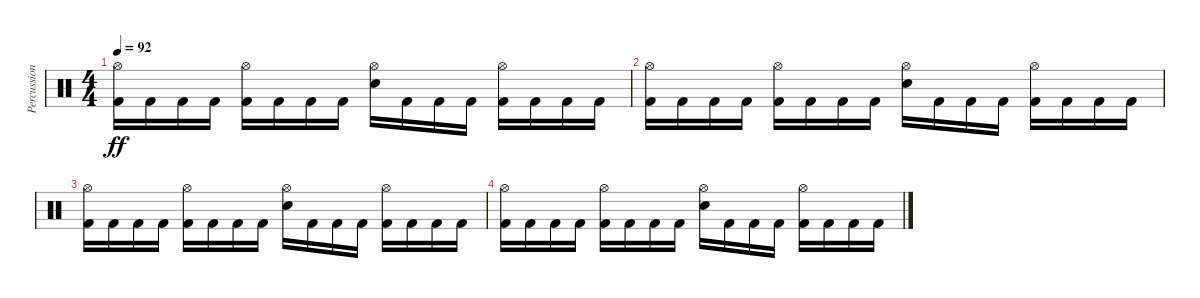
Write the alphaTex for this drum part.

\track ("Percussions" "Percussion") {instrument percussion}
\staff {score}
\articulation defaults
\ts (4 4)
\tempo 92
\clef neutral
\ks c
("Kick (hit) 2" "Hi-Hat (open)").16{dy ff} "Kick (hit) 2".16 "Kick (hit) 2".16 "Kick (hit) 2".16 ("Kick (hit) 2" "Hi-Hat (open)").16 "Kick (hit) 2".16 "Kick (hit) 2".16 "Kick (hit) 2".16 ("Electric Snare (hit)" "Hi-Hat (open)").16 "Kick (hit) 2".16 "Kick (hit) 2".16 "Kick (hit) 2".16 ("Kick (hit) 2" "Hi-Hat (open)").16 "Kick (hit) 2".16 "Kick (hit) 2".16 "Kick (hit) 2".16 |
("Kick (hit) 2" "Hi-Hat (open)").16 "Kick (hit) 2".16 "Kick (hit) 2".16 "Kick (hit) 2".16 ("Kick (hit) 2" "Hi-Hat (open)").16 "Kick (hit) 2".16 "Kick (hit) 2".16 "Kick (hit) 2".16 ("Electric Snare (hit)" "Hi-Hat (open)").16 "Kick (hit) 2".16 "Kick (hit) 2".16 "Kick (hit) 2".16 ("Kick (hit) 2" "Hi-Hat (open)").16 "Kick (hit) 2".16 "Kick (hit) 2".16 "Kick (hit) 2".16 |
("Kick (hit) 2" "Hi-Hat (open)").16 "Kick (hit) 2".16 "Kick (hit) 2".16 "Kick (hit) 2".16 ("Kick (hit) 2" "Hi-Hat (open)").16 "Kick (hit) 2".16 "Kick (hit) 2".16 "Kick (hit) 2".16 ("Electric Snare (hit)" "Hi-Hat (open)").16 "Kick (hit) 2".16 "Kick (hit) 2".16 "Kick (hit) 2".16 ("Kick (hit) 2" "Hi-Hat (open)").16 "Kick (hit) 2".16 "Kick (hit) 2".16 "Kick (hit) 2".16 |
("Kick (hit) 2" "Hi-Hat (open)").16 "Kick (hit) 2".16 "Kick (hit) 2".16 "Kick (hit) 2".16 ("Kick (hit) 2" "Hi-Hat (open)").16 "Kick (hit) 2".16 "Kick (hit) 2".16 "Kick (hit) 2".16 ("Electric Snare (hit)" "Hi-Hat (open)").16 "Kick (hit) 2".16 "Kick (hit) 2".16 "Kick (hit) 2".16 ("Kick (hit) 2" "Hi-Hat (open)").16 "Kick (hit) 2".16 "Kick (hit) 2".16 "Kick (hit) 2".16
